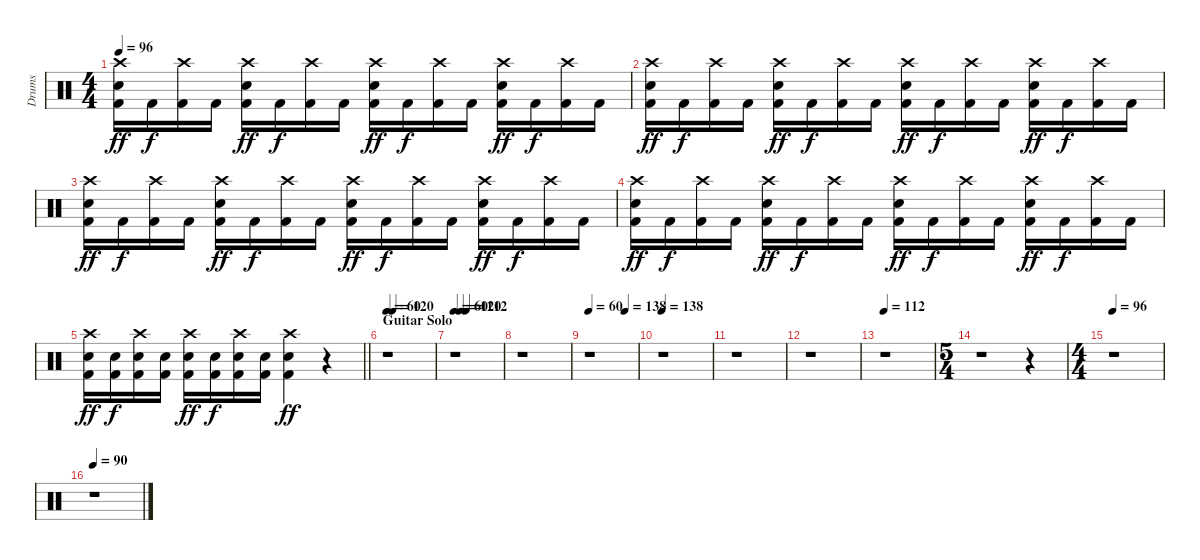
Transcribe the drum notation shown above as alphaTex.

\track ("Drums" "Drums") {instrument percussion}
\staff {score}
\articulation defaults
\ts (4 4)
\tempo 96
\clef neutral
\ks c
("Crash high (hit)" "Electric Snare (hit)" "Kick (hit) 2").16{dy ff} "Kick (hit) 2".16{dy f} ("Crash high (hit)" "Kick (hit) 2").16 "Kick (hit) 2".16 ("Crash high (hit)" "Electric Snare (hit)" "Kick (hit) 2").16{dy ff} "Kick (hit) 2".16{dy f} ("Crash high (hit)" "Kick (hit) 2").16 "Kick (hit) 2".16 ("Crash high (hit)" "Electric Snare (hit)" "Kick (hit) 2").16{dy ff} "Kick (hit) 2".16{dy f} ("Crash high (hit)" "Kick (hit) 2").16 "Kick (hit) 2".16 ("Crash high (hit)" "Electric Snare (hit)" "Kick (hit) 2").16{dy ff} "Kick (hit) 2".16{dy f} ("Crash high (hit)" "Kick (hit) 2").16 "Kick (hit) 2".16 |
("Crash high (hit)" "Electric Snare (hit)" "Kick (hit) 2").16{dy ff} "Kick (hit) 2".16{dy f} ("Crash high (hit)" "Kick (hit) 2").16 "Kick (hit) 2".16 ("Crash high (hit)" "Electric Snare (hit)" "Kick (hit) 2").16{dy ff} "Kick (hit) 2".16{dy f} ("Crash high (hit)" "Kick (hit) 2").16 "Kick (hit) 2".16 ("Crash high (hit)" "Electric Snare (hit)" "Kick (hit) 2").16{dy ff} "Kick (hit) 2".16{dy f} ("Crash high (hit)" "Kick (hit) 2").16 "Kick (hit) 2".16 ("Crash high (hit)" "Electric Snare (hit)" "Kick (hit) 2").16{dy ff} "Kick (hit) 2".16{dy f} ("Crash high (hit)" "Kick (hit) 2").16 "Kick (hit) 2".16 |
("Crash high (hit)" "Electric Snare (hit)" "Kick (hit) 2").16{dy ff} "Kick (hit) 2".16{dy f} ("Crash high (hit)" "Kick (hit) 2").16 "Kick (hit) 2".16 ("Crash high (hit)" "Electric Snare (hit)" "Kick (hit) 2").16{dy ff} "Kick (hit) 2".16{dy f} ("Crash high (hit)" "Kick (hit) 2").16 "Kick (hit) 2".16 ("Crash high (hit)" "Electric Snare (hit)" "Kick (hit) 2").16{dy ff} "Kick (hit) 2".16{dy f} ("Crash high (hit)" "Kick (hit) 2").16 "Kick (hit) 2".16 ("Crash high (hit)" "Electric Snare (hit)" "Kick (hit) 2").16{dy ff} "Kick (hit) 2".16{dy f} ("Crash high (hit)" "Kick (hit) 2").16 "Kick (hit) 2".16 |
("Crash high (hit)" "Electric Snare (hit)" "Kick (hit) 2").16{dy ff} "Kick (hit) 2".16{dy f} ("Crash high (hit)" "Kick (hit) 2").16 "Kick (hit) 2".16 ("Crash high (hit)" "Electric Snare (hit)" "Kick (hit) 2").16{dy ff} "Kick (hit) 2".16{dy f} ("Crash high (hit)" "Kick (hit) 2").16 "Kick (hit) 2".16 ("Crash high (hit)" "Electric Snare (hit)" "Kick (hit) 2").16{dy ff} "Kick (hit) 2".16{dy f} ("Crash high (hit)" "Kick (hit) 2").16 "Kick (hit) 2".16 ("Crash high (hit)" "Electric Snare (hit)" "Kick (hit) 2").16{dy ff} "Kick (hit) 2".16{dy f} ("Crash high (hit)" "Kick (hit) 2").16 "Kick (hit) 2".16 |
\barLineRight lightlight
("Crash high (hit)" "Electric Snare (hit)" "Kick (hit) 2").16{dy ff} ("Electric Snare (hit)" "Kick (hit) 2").16{dy f} ("Crash high (hit)" "Electric Snare (hit)" "Kick (hit) 2").16 ("Electric Snare (hit)" "Kick (hit) 2").16 ("Crash high (hit)" "Electric Snare (hit)" "Kick (hit) 2").16{dy ff} ("Electric Snare (hit)" "Kick (hit) 2").16{dy f} ("Crash high (hit)" "Electric Snare (hit)" "Kick (hit) 2").16 ("Electric Snare (hit)" "Kick (hit) 2").16 ("Crash high (hit)" "Electric Snare (hit)" "Kick (hit) 2").4{dy ff} r.4 |
\section ("" "Guitar Solo")
\tempo 60
\tempo (120 0.125)
r.1 |
\tempo 60
\tempo (120 0.125)
\tempo (112 0.25)
r.1 |
r.1 |
\tempo 60
\tempo (138 0.75)
r.1 |
\tempo 138
r.1 |
r.1 |
r.1 |
\tempo 112
r.1 |
\ts (5 4)
r.1 r.4 |
\ts (4 4)
\tempo 96
r.1 |
\tempo 90
r.1
